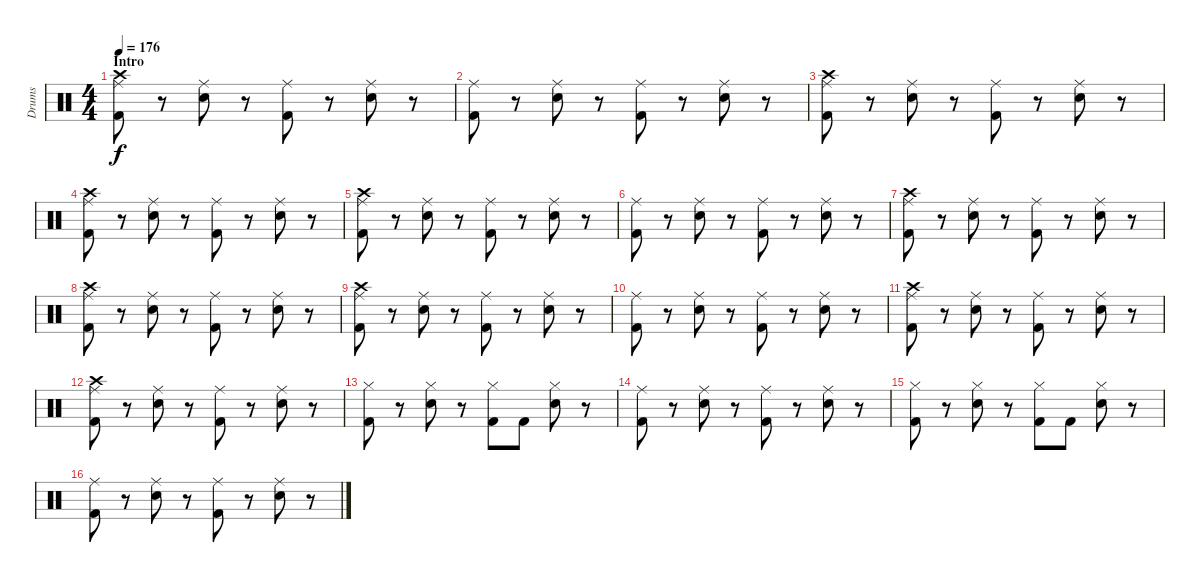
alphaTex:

\track ("Drums" "Drums") {instrument percussion}
\staff {score}
\articulation defaults
\ts (4 4)
\section ("" "Intro")
\tempo 176
\clef neutral
\ks c
("Crash high (hit)" "Ride (middle)" "Kick (hit) 2").8{dy f} r.8 ("Ride (middle)" "Electric Snare (hit)").8 r.8 ("Ride (middle)" "Kick (hit) 2").8 r.8 ("Ride (middle)" "Electric Snare (hit)").8 r.8 |
("Ride (middle)" "Kick (hit) 2").8 r.8 ("Ride (middle)" "Electric Snare (hit)").8 r.8 ("Ride (middle)" "Kick (hit) 2").8 r.8 ("Ride (middle)" "Electric Snare (hit)").8 r.8 |
("Crash high (hit)" "Ride (middle)" "Kick (hit) 2").8 r.8 ("Ride (middle)" "Electric Snare (hit)").8 r.8 ("Ride (middle)" "Kick (hit) 2").8 r.8 ("Ride (middle)" "Electric Snare (hit)").8 r.8 |
("Crash high (hit)" "Ride (middle)" "Kick (hit) 2").8 r.8 ("Ride (middle)" "Electric Snare (hit)").8 r.8 ("Ride (middle)" "Kick (hit) 2").8 r.8 ("Ride (middle)" "Electric Snare (hit)").8 r.8 |
("Crash high (hit)" "Ride (middle)" "Kick (hit) 2").8 r.8 ("Ride (middle)" "Electric Snare (hit)").8 r.8 ("Ride (middle)" "Kick (hit) 2").8 r.8 ("Ride (middle)" "Electric Snare (hit)").8 r.8 |
("Ride (middle)" "Kick (hit) 2").8 r.8 ("Ride (middle)" "Electric Snare (hit)").8 r.8 ("Ride (middle)" "Kick (hit) 2").8 r.8 ("Ride (middle)" "Electric Snare (hit)").8 r.8 |
("Crash high (hit)" "Ride (middle)" "Kick (hit) 2").8 r.8 ("Ride (middle)" "Electric Snare (hit)").8 r.8 ("Ride (middle)" "Kick (hit) 2").8 r.8 ("Ride (middle)" "Electric Snare (hit)").8 r.8 |
("Crash high (hit)" "Ride (middle)" "Kick (hit) 2").8 r.8 ("Ride (middle)" "Electric Snare (hit)").8 r.8 ("Ride (middle)" "Kick (hit) 2").8 r.8 ("Ride (middle)" "Electric Snare (hit)").8 r.8 |
("Crash high (hit)" "Ride (middle)" "Kick (hit) 2").8 r.8 ("Ride (middle)" "Electric Snare (hit)").8 r.8 ("Ride (middle)" "Kick (hit) 2").8 r.8 ("Ride (middle)" "Electric Snare (hit)").8 r.8 |
("Ride (middle)" "Kick (hit) 2").8 r.8 ("Ride (middle)" "Electric Snare (hit)").8 r.8 ("Ride (middle)" "Kick (hit) 2").8 r.8 ("Ride (middle)" "Electric Snare (hit)").8 r.8 |
("Crash high (hit)" "Ride (middle)" "Kick (hit) 2").8 r.8 ("Ride (middle)" "Electric Snare (hit)").8 r.8 ("Ride (middle)" "Kick (hit) 2").8 r.8 ("Ride (middle)" "Electric Snare (hit)").8 r.8 |
("Crash high (hit)" "Ride (middle)" "Kick (hit) 2").8 r.8 ("Ride (middle)" "Electric Snare (hit)").8 r.8 ("Ride (middle)" "Kick (hit) 2").8 r.8 ("Ride (middle)" "Electric Snare (hit)").8 r.8 |
("Hi-Hat (closed)" "Kick (hit) 2").8 r.8 ("Hi-Hat (closed)" "Electric Snare (hit)").8 r.8 ("Hi-Hat (closed)" "Kick (hit) 2").8 "Kick (hit) 2".8 ("Hi-Hat (closed)" "Electric Snare (hit)").8 r.8 |
("Ride (middle)" "Kick (hit) 2").8 r.8 ("Ride (middle)" "Electric Snare (hit)").8 r.8 ("Ride (middle)" "Kick (hit) 2").8 r.8 ("Ride (middle)" "Electric Snare (hit)").8 r.8 |
("Hi-Hat (closed)" "Kick (hit) 2").8 r.8 ("Hi-Hat (closed)" "Electric Snare (hit)").8 r.8 ("Hi-Hat (closed)" "Kick (hit) 2").8 "Kick (hit) 2".8 ("Hi-Hat (closed)" "Electric Snare (hit)").8 r.8 |
("Ride (middle)" "Kick (hit) 2").8 r.8 ("Ride (middle)" "Electric Snare (hit)").8 r.8 ("Ride (middle)" "Kick (hit) 2").8 r.8 ("Ride (middle)" "Electric Snare (hit)").8 r.8
